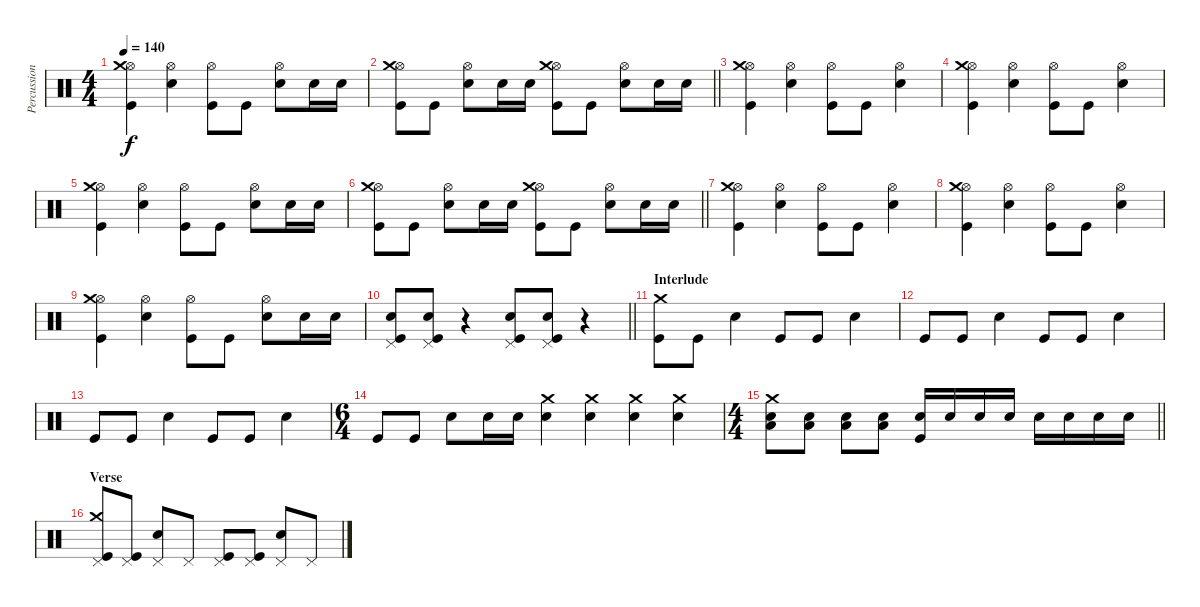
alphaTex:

\track ("Percussion" "Percussion") {instrument percussion}
\staff {score}
\articulation defaults
\ts (4 4)
\tempo 140
\clef neutral
\ks c
("Hi-Hat (open)" "Kick (hit)" "Crash medium (hit)").4{dy f} ("Hi-Hat (open)" "Electric Snare (hit)").4 ("Hi-Hat (open)" "Kick (hit)").8 "Kick (hit)".8 ("Hi-Hat (open)" "Electric Snare (hit)").8 "Electric Snare (hit)".16 "Electric Snare (hit)".16 |
\barLineRight lightlight
("Hi-Hat (open)" "Kick (hit)" "Crash medium (hit)").8 "Kick (hit)".8 ("Hi-Hat (open)" "Electric Snare (hit)").8 "Electric Snare (hit)".16 "Electric Snare (hit)".16 ("Hi-Hat (open)" "Kick (hit)" "Crash medium (hit)").8 "Kick (hit)".8 ("Hi-Hat (open)" "Electric Snare (hit)").8 "Electric Snare (hit)".16 "Electric Snare (hit)".16 |
("Hi-Hat (open)" "Kick (hit)" "Crash medium (hit)").4 ("Hi-Hat (open)" "Electric Snare (hit)").4 ("Hi-Hat (open)" "Kick (hit)").8 "Kick (hit)".8 ("Hi-Hat (open)" "Electric Snare (hit)").4 |
("Hi-Hat (open)" "Kick (hit)" "Crash medium (hit)").4 ("Hi-Hat (open)" "Electric Snare (hit)").4 ("Hi-Hat (open)" "Kick (hit)").8 "Kick (hit)".8 ("Hi-Hat (open)" "Electric Snare (hit)").4 |
("Hi-Hat (open)" "Kick (hit)" "Crash medium (hit)").4 ("Hi-Hat (open)" "Electric Snare (hit)").4 ("Hi-Hat (open)" "Kick (hit)").8 "Kick (hit)".8 ("Hi-Hat (open)" "Electric Snare (hit)").8 "Electric Snare (hit)".16 "Electric Snare (hit)".16 |
\barLineRight lightlight
("Hi-Hat (open)" "Kick (hit)" "Crash medium (hit)").8 "Kick (hit)".8 ("Hi-Hat (open)" "Electric Snare (hit)").8 "Electric Snare (hit)".16 "Electric Snare (hit)".16 ("Hi-Hat (open)" "Kick (hit)" "Crash medium (hit)").8 "Kick (hit)".8 ("Hi-Hat (open)" "Electric Snare (hit)").8 "Electric Snare (hit)".16 "Electric Snare (hit)".16 |
("Hi-Hat (open)" "Kick (hit)" "Crash medium (hit)").4 ("Hi-Hat (open)" "Electric Snare (hit)").4 ("Hi-Hat (open)" "Kick (hit)").8 "Kick (hit)".8 ("Hi-Hat (open)" "Electric Snare (hit)").4 |
("Hi-Hat (open)" "Kick (hit)" "Crash medium (hit)").4 ("Hi-Hat (open)" "Electric Snare (hit)").4 ("Hi-Hat (open)" "Kick (hit)").8 "Kick (hit)".8 ("Hi-Hat (open)" "Electric Snare (hit)").4 |
("Hi-Hat (open)" "Kick (hit)" "Crash medium (hit)").4 ("Hi-Hat (open)" "Electric Snare (hit)").4 ("Hi-Hat (open)" "Kick (hit)").8 "Kick (hit)".8 ("Hi-Hat (open)" "Electric Snare (hit)").8 "Electric Snare (hit)".16 "Electric Snare (hit)".16 |
\barLineRight lightlight
("Pedal Hi-Hat (hit)" "Electric Snare (hit)" "Kick (hit)").8 ("Pedal Hi-Hat (hit)" "Electric Snare (hit)" "Kick (hit)").8 r.4 ("Pedal Hi-Hat (hit)" "Electric Snare (hit)" "Kick (hit)").8 ("Pedal Hi-Hat (hit)" "Electric Snare (hit)" "Kick (hit)").8 r.4 |
\section ("" "Interlude")
("Kick (hit)" "Crash medium (hit)").8 "Kick (hit)".8 "Electric Snare (hit)".4 "Kick (hit)".8 "Kick (hit)".8 "Electric Snare (hit)".4 |
"Kick (hit)".8 "Kick (hit)".8 "Electric Snare (hit)".4 "Kick (hit)".8 "Kick (hit)".8 "Electric Snare (hit)".4 |
"Kick (hit)".8 "Kick (hit)".8 "Electric Snare (hit)".4 "Kick (hit)".8 "Kick (hit)".8 "Electric Snare (hit)".4 |
\ts (6 4)
"Kick (hit)".8 "Kick (hit)".8 "Electric Snare (hit)".8 "Electric Snare (hit)".16 "Electric Snare (hit)".16 ("Electric Snare (hit)" "Crash medium (hit)").4 ("Electric Snare (hit)" "Crash medium (hit)").4 ("Electric Snare (hit)" "Crash medium (hit)").4 ("Electric Snare (hit)" "Crash medium (hit)").4 |
\ts (4 4)
\barLineRight lightlight
("Electric Snare (hit)" "Low Tom (hit)" "Crash medium (hit)").8 ("Electric Snare (hit)" "Low Tom (hit)").8 ("Electric Snare (hit)" "Low Tom (hit)").8 ("Electric Snare (hit)" "Low Tom (hit)").8 ("Electric Snare (hit)" "Kick (hit)").16 "Electric Snare (hit)".16 "Electric Snare (hit)".16 "Electric Snare (hit)".16 "Electric Snare (hit)".16 "Electric Snare (hit)".16 "Electric Snare (hit)".16 "Electric Snare (hit)".16 |
\section ("" "Verse")
("Pedal Hi-Hat (hit)" "Kick (hit)" "Crash medium (hit)").8 ("Pedal Hi-Hat (hit)" "Kick (hit)").8 ("Pedal Hi-Hat (hit)" "Electric Snare (hit)").8 "Pedal Hi-Hat (hit)".8 ("Pedal Hi-Hat (hit)" "Kick (hit)").8 ("Pedal Hi-Hat (hit)" "Kick (hit)").8 ("Pedal Hi-Hat (hit)" "Electric Snare (hit)").8 "Pedal Hi-Hat (hit)".8
